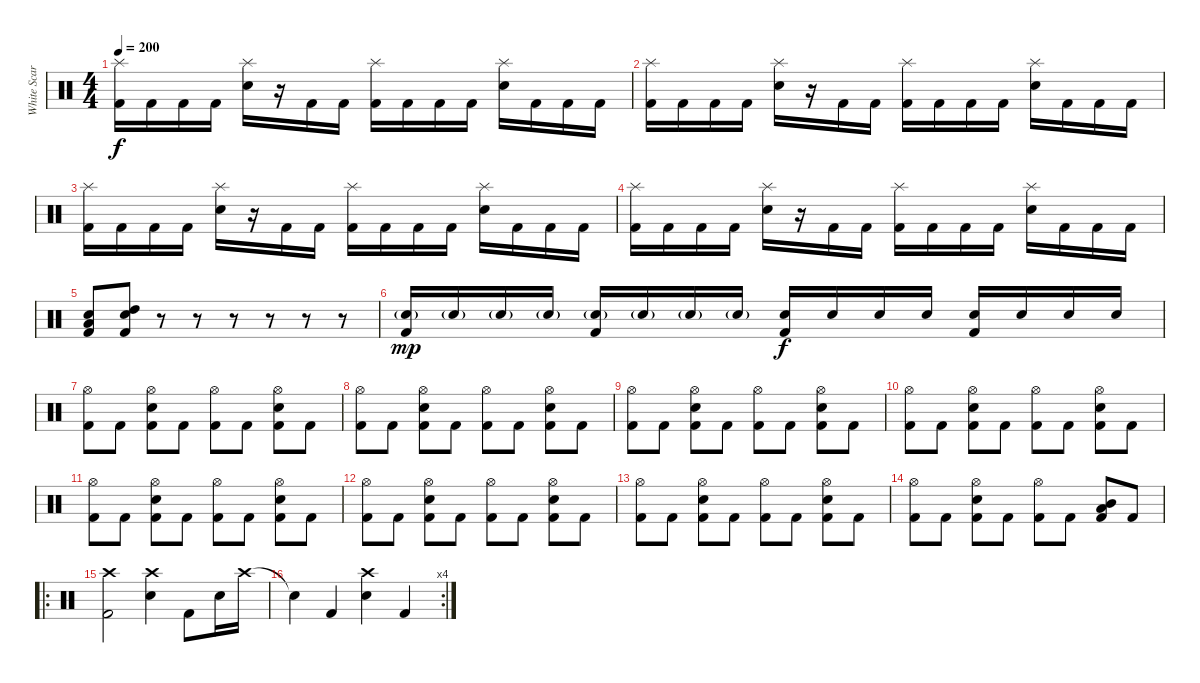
\track ("White Scar" "White Scar") {instrument percussion}
\staff {score}
\articulation defaults
\ts (4 4)
\tempo 200
\clef neutral
\ks c
("Splash (hit)" "Kick (hit) 2").16{dy f} "Kick (hit) 2".16 "Kick (hit) 2".16 "Kick (hit) 2".16 ("Splash (hit)" "Snare (hit) 2").16 r.16 "Kick (hit) 2".16 "Kick (hit) 2".16 ("Splash (hit)" "Kick (hit) 2").16 "Kick (hit) 2".16 "Kick (hit) 2".16 "Kick (hit) 2".16 ("Splash (hit)" "Snare (hit) 2").16 "Kick (hit) 2".16 "Kick (hit) 2".16 "Kick (hit) 2".16 |
("Splash (hit)" "Kick (hit) 2").16 "Kick (hit) 2".16 "Kick (hit) 2".16 "Kick (hit) 2".16 ("Splash (hit)" "Snare (hit) 2").16 r.16 "Kick (hit) 2".16 "Kick (hit) 2".16 ("Splash (hit)" "Kick (hit) 2").16 "Kick (hit) 2".16 "Kick (hit) 2".16 "Kick (hit) 2".16 ("Splash (hit)" "Snare (hit) 2").16 "Kick (hit) 2".16 "Kick (hit) 2".16 "Kick (hit) 2".16 |
("Splash (hit)" "Kick (hit) 2").16 "Kick (hit) 2".16 "Kick (hit) 2".16 "Kick (hit) 2".16 ("Splash (hit)" "Snare (hit) 2").16 r.16 "Kick (hit) 2".16 "Kick (hit) 2".16 ("Splash (hit)" "Kick (hit) 2").16 "Kick (hit) 2".16 "Kick (hit) 2".16 "Kick (hit) 2".16 ("Splash (hit)" "Snare (hit) 2").16 "Kick (hit) 2".16 "Kick (hit) 2".16 "Kick (hit) 2".16 |
("Splash (hit)" "Kick (hit) 2").16 "Kick (hit) 2".16 "Kick (hit) 2".16 "Kick (hit) 2".16 ("Splash (hit)" "Snare (hit) 2").16 r.16 "Kick (hit) 2".16 "Kick (hit) 2".16 ("Splash (hit)" "Kick (hit) 2").16 "Kick (hit) 2".16 "Kick (hit) 2".16 "Kick (hit) 2".16 ("Splash (hit)" "Snare (hit) 2").16 "Kick (hit) 2".16 "Kick (hit) 2".16 "Kick (hit) 2".16 |
("Snare (hit) 2" "Low Tom (hit)" "Kick (hit) 2").8 ("Snare (hit) 2" "High Tom (hit)" "Kick (hit) 2").8 r.8 r.8 r.8 r.8 r.8 r.8 |
("Snare (hit) 2"{g} "Kick (hit) 2").16{dy mp} "Snare (hit) 2"{g}.16 "Snare (hit) 2"{g}.16 "Snare (hit) 2"{g}.16 ("Snare (hit) 2"{g} "Kick (hit) 2").16 "Snare (hit) 2"{g}.16 "Snare (hit) 2"{g}.16 "Snare (hit) 2"{g}.16 ("Snare (hit) 2" "Kick (hit) 2").16{dy f} "Snare (hit) 2".16 "Snare (hit) 2".16 "Snare (hit) 2".16 ("Snare (hit) 2" "Kick (hit) 2").16 "Snare (hit) 2".16 "Snare (hit) 2".16 "Snare (hit) 2".16 |
("Hi-Hat (open)" "Kick (hit) 2").8 "Kick (hit) 2".8 ("Snare (hit) 2" "Hi-Hat (open)" "Kick (hit) 2").8 "Kick (hit) 2".8 ("Hi-Hat (open)" "Kick (hit) 2").8 "Kick (hit) 2".8 ("Snare (hit) 2" "Hi-Hat (open)" "Kick (hit) 2").8 "Kick (hit) 2".8 |
("Hi-Hat (open)" "Kick (hit) 2").8 "Kick (hit) 2".8 ("Snare (hit) 2" "Hi-Hat (open)" "Kick (hit) 2").8 "Kick (hit) 2".8 ("Hi-Hat (open)" "Kick (hit) 2").8 "Kick (hit) 2".8 ("Snare (hit) 2" "Hi-Hat (open)" "Kick (hit) 2").8 "Kick (hit) 2".8 |
("Hi-Hat (open)" "Kick (hit) 2").8 "Kick (hit) 2".8 ("Snare (hit) 2" "Hi-Hat (open)" "Kick (hit) 2").8 "Kick (hit) 2".8 ("Hi-Hat (open)" "Kick (hit) 2").8 "Kick (hit) 2".8 ("Snare (hit) 2" "Hi-Hat (open)" "Kick (hit) 2").8 "Kick (hit) 2".8 |
("Hi-Hat (open)" "Kick (hit) 2").8 "Kick (hit) 2".8 ("Snare (hit) 2" "Hi-Hat (open)" "Kick (hit) 2").8 "Kick (hit) 2".8 ("Hi-Hat (open)" "Kick (hit) 2").8 "Kick (hit) 2".8 ("Snare (hit) 2" "Hi-Hat (open)" "Kick (hit) 2").8 "Kick (hit) 2".8 |
("Hi-Hat (open)" "Kick (hit) 2").8 "Kick (hit) 2".8 ("Snare (hit) 2" "Hi-Hat (open)" "Kick (hit) 2").8 "Kick (hit) 2".8 ("Hi-Hat (open)" "Kick (hit) 2").8 "Kick (hit) 2".8 ("Snare (hit) 2" "Hi-Hat (open)" "Kick (hit) 2").8 "Kick (hit) 2".8 |
("Hi-Hat (open)" "Kick (hit) 2").8 "Kick (hit) 2".8 ("Snare (hit) 2" "Hi-Hat (open)" "Kick (hit) 2").8 "Kick (hit) 2".8 ("Hi-Hat (open)" "Kick (hit) 2").8 "Kick (hit) 2".8 ("Snare (hit) 2" "Hi-Hat (open)" "Kick (hit) 2").8 "Kick (hit) 2".8 |
("Hi-Hat (open)" "Kick (hit) 2").8 "Kick (hit) 2".8 ("Snare (hit) 2" "Hi-Hat (open)" "Kick (hit) 2").8 "Kick (hit) 2".8 ("Hi-Hat (open)" "Kick (hit) 2").8 "Kick (hit) 2".8 ("Snare (hit) 2" "Hi-Hat (open)" "Kick (hit) 2").8 "Kick (hit) 2".8 |
("Hi-Hat (open)" "Kick (hit) 2").8 "Kick (hit) 2".8 ("Snare (hit) 2" "Hi-Hat (open)" "Kick (hit) 2").8 "Kick (hit) 2".8 ("Hi-Hat (open)" "Kick (hit) 2").8 "Kick (hit) 2".8 ("Low Tom (hit)" "Mid Tom (hit)" "Kick (hit) 2").8 "Kick (hit) 2".8 |
\ro
("Crash high (hit)" "Kick (hit) 2").2 ("Crash high (hit)" "Snare (hit) 2").4 "Kick (hit) 2".8 "Snare (hit) 2".16 "Crash high (hit)".16 |
\rc 4 "Snare (hit)"{t}.4 "Kick (hit) 2".4
("Crash high (hit)" "Snare (hit) 2").4 "Kick (hit) 2".4
